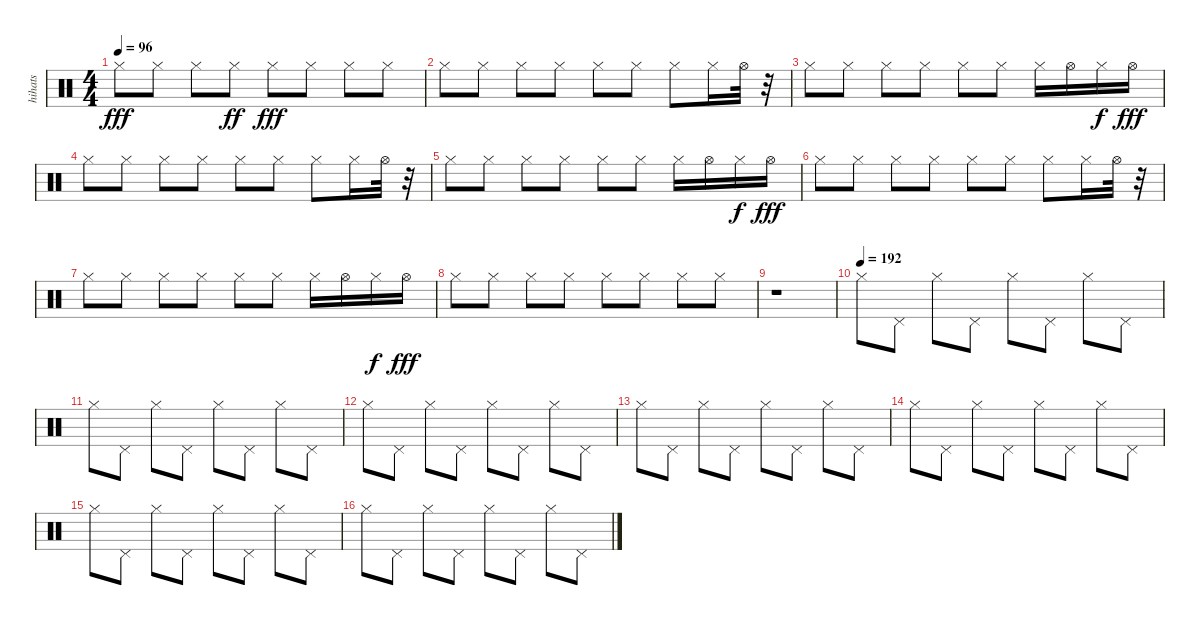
\track ("hihats" "hihats") {instrument percussion}
\staff {score}
\articulation defaults
\ts (4 4)
\tempo 96
\clef neutral
\ks c "Hi-Hat (closed)".8{dy fff} "Hi-Hat (closed)".8 "Hi-Hat (closed)".8 "Hi-Hat (closed)".8{dy ff} "Hi-Hat (closed)".8{dy fff} "Hi-Hat (closed)".8 "Hi-Hat (closed)".8 "Hi-Hat (closed)".8
|
"Hi-Hat (closed)".8 "Hi-Hat (closed)".8 "Hi-Hat (closed)".8 "Hi-Hat (closed)".8 "Hi-Hat (closed)".8 "Hi-Hat (closed)".8 "Hi-Hat (closed)".8 "Hi-Hat (closed)".16 "Hi-Hat (open)".32 r.32 |
"Hi-Hat (closed)".8 "Hi-Hat (closed)".8 "Hi-Hat (closed)".8 "Hi-Hat (closed)".8 "Hi-Hat (closed)".8 "Hi-Hat (closed)".8 "Hi-Hat (closed)".16 "Hi-Hat (open)".16 "Hi-Hat (closed)".16{dy f} "Hi-Hat (open)".16{dy fff} |
"Hi-Hat (closed)".8 "Hi-Hat (closed)".8 "Hi-Hat (closed)".8 "Hi-Hat (closed)".8 "Hi-Hat (closed)".8 "Hi-Hat (closed)".8 "Hi-Hat (closed)".8 "Hi-Hat (closed)".16 "Hi-Hat (open)".32 r.32 |
"Hi-Hat (closed)".8 "Hi-Hat (closed)".8 "Hi-Hat (closed)".8 "Hi-Hat (closed)".8 "Hi-Hat (closed)".8 "Hi-Hat (closed)".8 "Hi-Hat (closed)".16 "Hi-Hat (open)".16 "Hi-Hat (closed)".16{dy f} "Hi-Hat (open)".16{dy fff} |
"Hi-Hat (closed)".8 "Hi-Hat (closed)".8 "Hi-Hat (closed)".8 "Hi-Hat (closed)".8 "Hi-Hat (closed)".8 "Hi-Hat (closed)".8 "Hi-Hat (closed)".8 "Hi-Hat (closed)".16 "Hi-Hat (open)".32 r.32 |
"Hi-Hat (closed)".8 "Hi-Hat (closed)".8 "Hi-Hat (closed)".8 "Hi-Hat (closed)".8 "Hi-Hat (closed)".8 "Hi-Hat (closed)".8 "Hi-Hat (closed)".16 "Hi-Hat (open)".16 "Hi-Hat (closed)".16{dy f} "Hi-Hat (open)".16{dy fff} |
"Hi-Hat (closed)".8 "Hi-Hat (closed)".8 "Hi-Hat (closed)".8 "Hi-Hat (closed)".8 "Hi-Hat (closed)".8 "Hi-Hat (closed)".8 "Hi-Hat (closed)".8 "Hi-Hat (closed)".8 |
r.1 |
\tempo (192)
"Hi-Hat (closed)".8 "Pedal Hi-Hat (hit)".8 "Hi-Hat (closed)".8 "Pedal Hi-Hat (hit)".8 "Hi-Hat (closed)".8 "Pedal Hi-Hat (hit)".8 "Hi-Hat (closed)".8 "Pedal Hi-Hat (hit)".8 |
"Hi-Hat (closed)".8 "Pedal Hi-Hat (hit)".8 "Hi-Hat (closed)".8 "Pedal Hi-Hat (hit)".8 "Hi-Hat (closed)".8 "Pedal Hi-Hat (hit)".8 "Hi-Hat (closed)".8 "Pedal Hi-Hat (hit)".8 |
"Hi-Hat (closed)".8 "Pedal Hi-Hat (hit)".8 "Hi-Hat (closed)".8 "Pedal Hi-Hat (hit)".8 "Hi-Hat (closed)".8 "Pedal Hi-Hat (hit)".8 "Hi-Hat (closed)".8 "Pedal Hi-Hat (hit)".8 |
"Hi-Hat (closed)".8 "Pedal Hi-Hat (hit)".8 "Hi-Hat (closed)".8 "Pedal Hi-Hat (hit)".8 "Hi-Hat (closed)".8 "Pedal Hi-Hat (hit)".8 "Hi-Hat (closed)".8 "Pedal Hi-Hat (hit)".8 |
"Hi-Hat (closed)".8 "Pedal Hi-Hat (hit)".8 "Hi-Hat (closed)".8 "Pedal Hi-Hat (hit)".8 "Hi-Hat (closed)".8 "Pedal Hi-Hat (hit)".8 "Hi-Hat (closed)".8 "Pedal Hi-Hat (hit)".8 |
"Hi-Hat (closed)".8 "Pedal Hi-Hat (hit)".8 "Hi-Hat (closed)".8 "Pedal Hi-Hat (hit)".8 "Hi-Hat (closed)".8 "Pedal Hi-Hat (hit)".8 "Hi-Hat (closed)".8 "Pedal Hi-Hat (hit)".8 |
"Hi-Hat (closed)".8 "Pedal Hi-Hat (hit)".8 "Hi-Hat (closed)".8 "Pedal Hi-Hat (hit)".8 "Hi-Hat (closed)".8 "Pedal Hi-Hat (hit)".8 "Hi-Hat (closed)".8 "Pedal Hi-Hat (hit)".8
